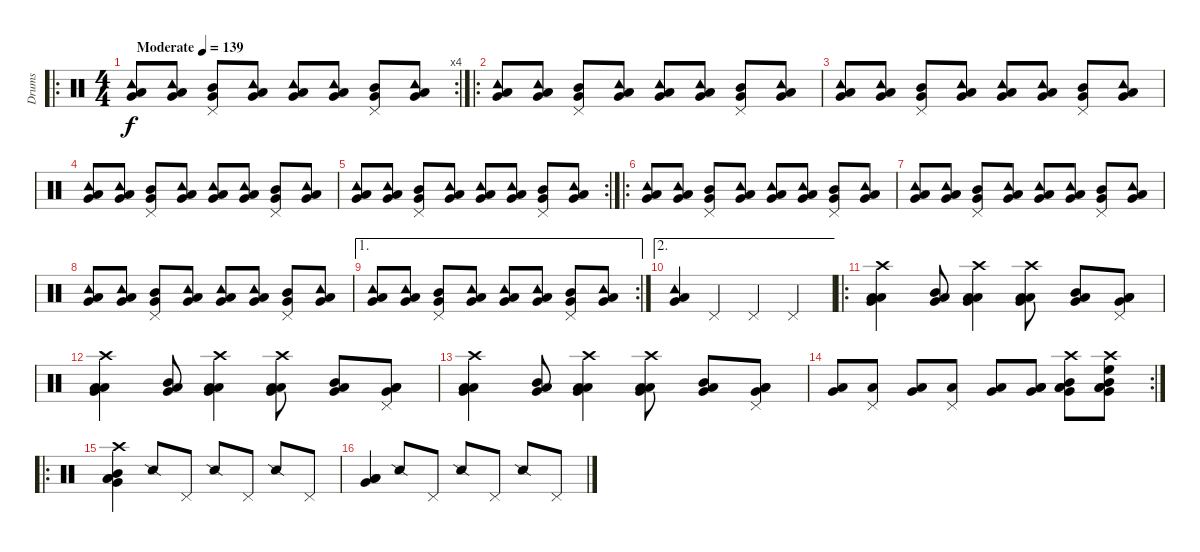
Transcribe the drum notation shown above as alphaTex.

\track ("Drums" "Drums") {instrument percussion}
\staff {score}
\articulation defaults
\ro
\rc 4
\ts (4 4)
\tempo (139 "Moderate")
\clef neutral
\ks c
("Very Low Tom (hit)" "Low Floor Tom (hit)" "Tambourine (hit)").8{dy f} ("Very Low Tom (hit)" "Low Floor Tom (hit)" "Tambourine (hit)").8 ("Mid Tom (hit)" "Pedal Hi-Hat (hit)" "Very Low Tom (hit)").8 ("Very Low Tom (hit)" "Low Floor Tom (hit)" "Tambourine (hit)").8 ("Very Low Tom (hit)" "Low Floor Tom (hit)" "Tambourine (hit)").8 ("Very Low Tom (hit)" "Low Floor Tom (hit)" "Tambourine (hit)").8 ("Mid Tom (hit)" "Pedal Hi-Hat (hit)" "Very Low Tom (hit)").8 ("Very Low Tom (hit)" "Low Floor Tom (hit)" "Tambourine (hit)").8 |
\ro
("Very Low Tom (hit)" "Low Floor Tom (hit)" "Tambourine (hit)").8 ("Very Low Tom (hit)" "Low Floor Tom (hit)" "Tambourine (hit)").8 ("Mid Tom (hit)" "Pedal Hi-Hat (hit)" "Very Low Tom (hit)").8 ("Very Low Tom (hit)" "Low Floor Tom (hit)" "Tambourine (hit)").8 ("Very Low Tom (hit)" "Low Floor Tom (hit)" "Tambourine (hit)").8 ("Very Low Tom (hit)" "Low Floor Tom (hit)" "Tambourine (hit)").8 ("Mid Tom (hit)" "Pedal Hi-Hat (hit)" "Very Low Tom (hit)").8 ("Very Low Tom (hit)" "Low Floor Tom (hit)" "Tambourine (hit)").8 |
("Very Low Tom (hit)" "Low Floor Tom (hit)" "Tambourine (hit)").8 ("Very Low Tom (hit)" "Low Floor Tom (hit)" "Tambourine (hit)").8 ("Mid Tom (hit)" "Pedal Hi-Hat (hit)" "Very Low Tom (hit)").8 ("Very Low Tom (hit)" "Low Floor Tom (hit)" "Tambourine (hit)").8 ("Very Low Tom (hit)" "Low Floor Tom (hit)" "Tambourine (hit)").8 ("Very Low Tom (hit)" "Low Floor Tom (hit)" "Tambourine (hit)").8 ("Mid Tom (hit)" "Pedal Hi-Hat (hit)" "Very Low Tom (hit)").8 ("Very Low Tom (hit)" "Low Floor Tom (hit)" "Tambourine (hit)").8 |
("Very Low Tom (hit)" "Low Floor Tom (hit)" "Tambourine (hit)").8 ("Very Low Tom (hit)" "Low Floor Tom (hit)" "Tambourine (hit)").8 ("Mid Tom (hit)" "Pedal Hi-Hat (hit)" "Very Low Tom (hit)").8 ("Very Low Tom (hit)" "Low Floor Tom (hit)" "Tambourine (hit)").8 ("Very Low Tom (hit)" "Low Floor Tom (hit)" "Tambourine (hit)").8 ("Very Low Tom (hit)" "Low Floor Tom (hit)" "Tambourine (hit)").8 ("Mid Tom (hit)" "Pedal Hi-Hat (hit)" "Very Low Tom (hit)").8 ("Very Low Tom (hit)" "Low Floor Tom (hit)" "Tambourine (hit)").8 |
\rc 2
("Very Low Tom (hit)" "Low Floor Tom (hit)" "Tambourine (hit)").8 ("Very Low Tom (hit)" "Low Floor Tom (hit)" "Tambourine (hit)").8 ("Mid Tom (hit)" "Pedal Hi-Hat (hit)" "Very Low Tom (hit)").8 ("Very Low Tom (hit)" "Low Floor Tom (hit)" "Tambourine (hit)").8 ("Very Low Tom (hit)" "Low Floor Tom (hit)" "Tambourine (hit)").8 ("Very Low Tom (hit)" "Low Floor Tom (hit)" "Tambourine (hit)").8 ("Mid Tom (hit)" "Pedal Hi-Hat (hit)" "Very Low Tom (hit)").8 ("Very Low Tom (hit)" "Low Floor Tom (hit)" "Tambourine (hit)").8 |
\ro
("Very Low Tom (hit)" "Low Floor Tom (hit)" "Tambourine (hit)").8 ("Very Low Tom (hit)" "Low Floor Tom (hit)" "Tambourine (hit)").8 ("Mid Tom (hit)" "Pedal Hi-Hat (hit)" "Very Low Tom (hit)").8 ("Very Low Tom (hit)" "Low Floor Tom (hit)" "Tambourine (hit)").8 ("Very Low Tom (hit)" "Low Floor Tom (hit)" "Tambourine (hit)").8 ("Very Low Tom (hit)" "Low Floor Tom (hit)" "Tambourine (hit)").8 ("Mid Tom (hit)" "Pedal Hi-Hat (hit)" "Very Low Tom (hit)").8 ("Very Low Tom (hit)" "Low Floor Tom (hit)" "Tambourine (hit)").8 |
("Very Low Tom (hit)" "Low Floor Tom (hit)" "Tambourine (hit)").8 ("Very Low Tom (hit)" "Low Floor Tom (hit)" "Tambourine (hit)").8 ("Mid Tom (hit)" "Pedal Hi-Hat (hit)" "Very Low Tom (hit)").8 ("Very Low Tom (hit)" "Low Floor Tom (hit)" "Tambourine (hit)").8 ("Very Low Tom (hit)" "Low Floor Tom (hit)" "Tambourine (hit)").8 ("Very Low Tom (hit)" "Low Floor Tom (hit)" "Tambourine (hit)").8 ("Mid Tom (hit)" "Pedal Hi-Hat (hit)" "Very Low Tom (hit)").8 ("Very Low Tom (hit)" "Low Floor Tom (hit)" "Tambourine (hit)").8 |
("Very Low Tom (hit)" "Low Floor Tom (hit)" "Tambourine (hit)").8 ("Very Low Tom (hit)" "Low Floor Tom (hit)" "Tambourine (hit)").8 ("Mid Tom (hit)" "Pedal Hi-Hat (hit)" "Very Low Tom (hit)").8 ("Very Low Tom (hit)" "Low Floor Tom (hit)" "Tambourine (hit)").8 ("Very Low Tom (hit)" "Low Floor Tom (hit)" "Tambourine (hit)").8 ("Very Low Tom (hit)" "Low Floor Tom (hit)" "Tambourine (hit)").8 ("Mid Tom (hit)" "Pedal Hi-Hat (hit)" "Very Low Tom (hit)").8 ("Very Low Tom (hit)" "Low Floor Tom (hit)" "Tambourine (hit)").8 |
\ae 1
\rc 2
("Very Low Tom (hit)" "Low Floor Tom (hit)" "Tambourine (hit)").8 ("Very Low Tom (hit)" "Low Floor Tom (hit)" "Tambourine (hit)").8 ("Mid Tom (hit)" "Pedal Hi-Hat (hit)" "Very Low Tom (hit)").8 ("Very Low Tom (hit)" "Low Floor Tom (hit)" "Tambourine (hit)").8 ("Very Low Tom (hit)" "Low Floor Tom (hit)" "Tambourine (hit)").8 ("Very Low Tom (hit)" "Low Floor Tom (hit)" "Tambourine (hit)").8 ("Mid Tom (hit)" "Pedal Hi-Hat (hit)" "Very Low Tom (hit)").8 ("Very Low Tom (hit)" "Low Floor Tom (hit)" "Tambourine (hit)").8 |
\ae 2
("Very Low Tom (hit)" "Low Floor Tom (hit)" "Tambourine (hit)").4 "Pedal Hi-Hat (hit)".4 "Pedal Hi-Hat (hit)".4 "Pedal Hi-Hat (hit)".4 |
\ro
("Low Tom (hit)" "Very Low Tom (hit)" "Low Floor Tom (hit)" "Crash high (hit)").4 ("Mid Tom (hit)" "Low Tom (hit)" "Very Low Tom (hit)").8 ("Low Tom (hit)" "Very Low Tom (hit)" "Low Floor Tom (hit)" "Crash high (hit)").4 ("Low Tom (hit)" "Very Low Tom (hit)" "Low Floor Tom (hit)" "Crash high (hit)").8 ("Mid Tom (hit)" "Low Tom (hit)" "Very Low Tom (hit)").8 ("Low Tom (hit)" "Very Low Tom (hit)" "Low Floor Tom (hit)" "Pedal Hi-Hat (hit)").8 |
("Low Tom (hit)" "Very Low Tom (hit)" "Low Floor Tom (hit)" "Crash high (hit)").4 ("Mid Tom (hit)" "Low Tom (hit)" "Very Low Tom (hit)").8 ("Low Tom (hit)" "Very Low Tom (hit)" "Low Floor Tom (hit)" "Crash high (hit)").4 ("Low Tom (hit)" "Very Low Tom (hit)" "Low Floor Tom (hit)" "Crash high (hit)").8 ("Mid Tom (hit)" "Low Tom (hit)" "Very Low Tom (hit)").8 ("Low Tom (hit)" "Very Low Tom (hit)" "Low Floor Tom (hit)" "Pedal Hi-Hat (hit)").8 |
("Low Tom (hit)" "Very Low Tom (hit)" "Low Floor Tom (hit)" "Crash high (hit)").4 ("Mid Tom (hit)" "Low Tom (hit)" "Very Low Tom (hit)").8 ("Low Tom (hit)" "Very Low Tom (hit)" "Low Floor Tom (hit)" "Crash high (hit)").4 ("Low Tom (hit)" "Very Low Tom (hit)" "Low Floor Tom (hit)" "Crash high (hit)").8 ("Mid Tom (hit)" "Low Tom (hit)" "Very Low Tom (hit)").8 ("Low Tom (hit)" "Very Low Tom (hit)" "Low Floor Tom (hit)" "Pedal Hi-Hat (hit)").8 |
\rc 2
("Low Tom (hit)" "Very Low Tom (hit)").8 ("Low Tom (hit)" "Pedal Hi-Hat (hit)").8 ("Low Tom (hit)" "Very Low Tom (hit)").8 ("Low Tom (hit)" "Pedal Hi-Hat (hit)").8 ("Low Tom (hit)" "Very Low Tom (hit)").8 ("Low Tom (hit)" "Very Low Tom (hit)" "Low Floor Tom (hit)").8 ("Low Tom (hit)" "Very Low Tom (hit)" "Low Floor Tom (hit)" "Mid Tom (hit)" "Crash high (hit)").8 ("Low Tom (hit)" "Very Low Tom (hit)" "Low Floor Tom (hit)" "Mid Tom (hit)" "Crash high (hit)" "High Floor Tom (hit)").8 |
\ro
("Mid Tom (hit)" "Low Tom (hit)" "Very Low Tom (hit)" "Low Floor Tom (hit)" "Crash high (hit)").4 "Snare (side stick) 2".8 "Pedal Hi-Hat (hit)".8 "Snare (side stick) 2".8 "Pedal Hi-Hat (hit)".8 "Snare (side stick) 2".8 "Pedal Hi-Hat (hit)".8 |
("Low Tom (hit)" "Very Low Tom (hit)" "Low Floor Tom (hit)").4 "Snare (side stick) 2".8 "Pedal Hi-Hat (hit)".8 "Snare (side stick) 2".8 "Pedal Hi-Hat (hit)".8 "Snare (side stick) 2".8 "Pedal Hi-Hat (hit)".8
